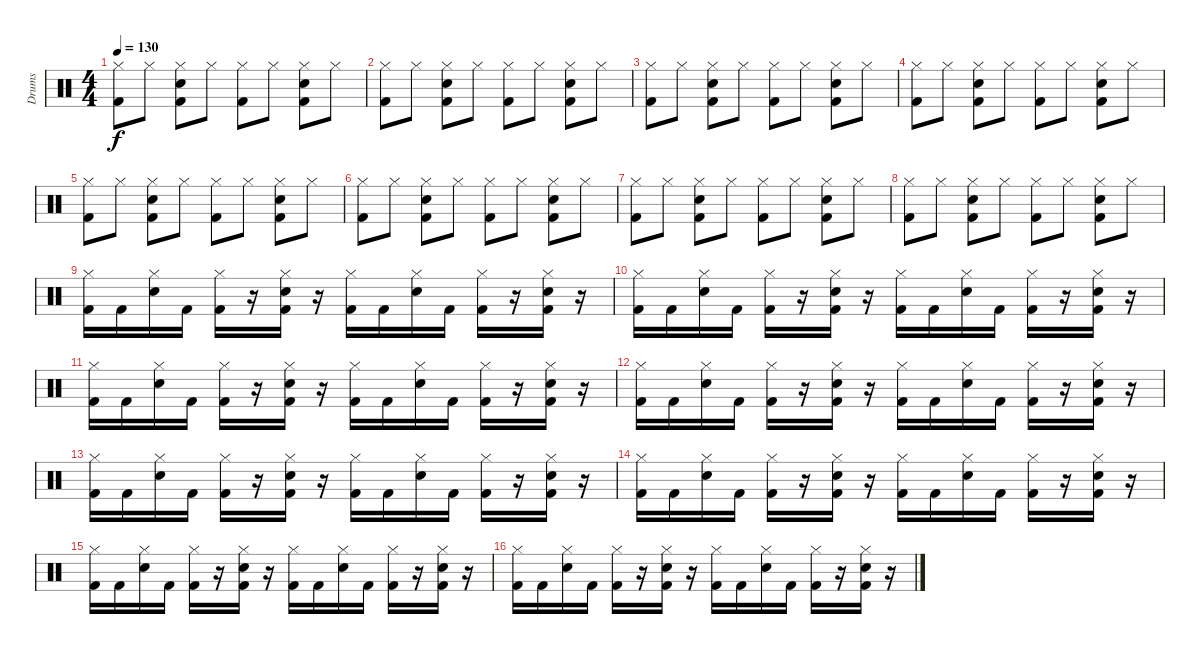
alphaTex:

\track ("Drums" "Drums") {instrument percussion}
\staff {score}
\articulation defaults
\ts (4 4)
\tempo 130
\clef neutral
\ks c
("Hi-Hat (closed)" "Kick (hit) 2").8{dy f} "Hi-Hat (closed)".8 ("Hi-Hat (closed)" "Electric Snare (hit)" "Kick (hit) 2").8 "Hi-Hat (closed)".8 ("Hi-Hat (closed)" "Kick (hit) 2").8 "Hi-Hat (closed)".8 ("Hi-Hat (closed)" "Electric Snare (hit)" "Kick (hit) 2").8 "Hi-Hat (closed)".8 |
("Hi-Hat (closed)" "Kick (hit) 2").8 "Hi-Hat (closed)".8 ("Hi-Hat (closed)" "Electric Snare (hit)" "Kick (hit) 2").8 "Hi-Hat (closed)".8 ("Hi-Hat (closed)" "Kick (hit) 2").8 "Hi-Hat (closed)".8 ("Hi-Hat (closed)" "Electric Snare (hit)" "Kick (hit) 2").8 "Hi-Hat (closed)".8 |
("Hi-Hat (closed)" "Kick (hit) 2").8 "Hi-Hat (closed)".8 ("Hi-Hat (closed)" "Electric Snare (hit)" "Kick (hit) 2").8 "Hi-Hat (closed)".8 ("Hi-Hat (closed)" "Kick (hit) 2").8 "Hi-Hat (closed)".8 ("Hi-Hat (closed)" "Electric Snare (hit)" "Kick (hit) 2").8 "Hi-Hat (closed)".8 |
("Hi-Hat (closed)" "Kick (hit) 2").8 "Hi-Hat (closed)".8 ("Hi-Hat (closed)" "Electric Snare (hit)" "Kick (hit) 2").8 "Hi-Hat (closed)".8 ("Hi-Hat (closed)" "Kick (hit) 2").8 "Hi-Hat (closed)".8 ("Hi-Hat (closed)" "Electric Snare (hit)" "Kick (hit) 2").8 "Hi-Hat (closed)".8 |
("Hi-Hat (closed)" "Kick (hit) 2").8 "Hi-Hat (closed)".8 ("Hi-Hat (closed)" "Electric Snare (hit)" "Kick (hit) 2").8 "Hi-Hat (closed)".8 ("Hi-Hat (closed)" "Kick (hit) 2").8 "Hi-Hat (closed)".8 ("Hi-Hat (closed)" "Electric Snare (hit)" "Kick (hit) 2").8 "Hi-Hat (closed)".8 |
("Hi-Hat (closed)" "Kick (hit) 2").8 "Hi-Hat (closed)".8 ("Hi-Hat (closed)" "Electric Snare (hit)" "Kick (hit) 2").8 "Hi-Hat (closed)".8 ("Hi-Hat (closed)" "Kick (hit) 2").8 "Hi-Hat (closed)".8 ("Hi-Hat (closed)" "Electric Snare (hit)" "Kick (hit) 2").8 "Hi-Hat (closed)".8 |
("Hi-Hat (closed)" "Kick (hit) 2").8 "Hi-Hat (closed)".8 ("Hi-Hat (closed)" "Electric Snare (hit)" "Kick (hit) 2").8 "Hi-Hat (closed)".8 ("Hi-Hat (closed)" "Kick (hit) 2").8 "Hi-Hat (closed)".8 ("Hi-Hat (closed)" "Electric Snare (hit)" "Kick (hit) 2").8 "Hi-Hat (closed)".8 |
("Hi-Hat (closed)" "Kick (hit) 2").8 "Hi-Hat (closed)".8 ("Hi-Hat (closed)" "Electric Snare (hit)" "Kick (hit) 2").8 "Hi-Hat (closed)".8 ("Hi-Hat (closed)" "Kick (hit) 2").8 "Hi-Hat (closed)".8 ("Hi-Hat (closed)" "Electric Snare (hit)" "Kick (hit) 2").8 "Hi-Hat (closed)".8 |
("Kick (hit) 2" "Hi-Hat (closed)").16 "Kick (hit) 2".16 ("Hi-Hat (closed)" "Electric Snare (hit)").16 "Kick (hit) 2".16 ("Kick (hit) 2" "Hi-Hat (closed)").16 r.16 ("Kick (hit) 2" "Hi-Hat (closed)" "Electric Snare (hit)").16 r.16 ("Kick (hit) 2" "Hi-Hat (closed)").16 "Kick (hit) 2".16 ("Hi-Hat (closed)" "Electric Snare (hit)").16 "Kick (hit) 2".16 ("Kick (hit) 2" "Hi-Hat (closed)").16 r.16 ("Kick (hit) 2" "Hi-Hat (closed)" "Electric Snare (hit)").16 r.16 |
("Kick (hit) 2" "Hi-Hat (closed)").16 "Kick (hit) 2".16 ("Hi-Hat (closed)" "Electric Snare (hit)").16 "Kick (hit) 2".16 ("Kick (hit) 2" "Hi-Hat (closed)").16 r.16 ("Kick (hit) 2" "Hi-Hat (closed)" "Electric Snare (hit)").16 r.16 ("Kick (hit) 2" "Hi-Hat (closed)").16 "Kick (hit) 2".16 ("Hi-Hat (closed)" "Electric Snare (hit)").16 "Kick (hit) 2".16 ("Kick (hit) 2" "Hi-Hat (closed)").16 r.16 ("Kick (hit) 2" "Hi-Hat (closed)" "Electric Snare (hit)").16 r.16 |
("Kick (hit) 2" "Hi-Hat (closed)").16 "Kick (hit) 2".16 ("Hi-Hat (closed)" "Electric Snare (hit)").16 "Kick (hit) 2".16 ("Kick (hit) 2" "Hi-Hat (closed)").16 r.16 ("Kick (hit) 2" "Hi-Hat (closed)" "Electric Snare (hit)").16 r.16 ("Kick (hit) 2" "Hi-Hat (closed)").16 "Kick (hit) 2".16 ("Hi-Hat (closed)" "Electric Snare (hit)").16 "Kick (hit) 2".16 ("Kick (hit) 2" "Hi-Hat (closed)").16 r.16 ("Kick (hit) 2" "Hi-Hat (closed)" "Electric Snare (hit)").16 r.16 |
("Kick (hit) 2" "Hi-Hat (closed)").16 "Kick (hit) 2".16 ("Hi-Hat (closed)" "Electric Snare (hit)").16 "Kick (hit) 2".16 ("Kick (hit) 2" "Hi-Hat (closed)").16 r.16 ("Kick (hit) 2" "Hi-Hat (closed)" "Electric Snare (hit)").16 r.16 ("Kick (hit) 2" "Hi-Hat (closed)").16 "Kick (hit) 2".16 ("Hi-Hat (closed)" "Electric Snare (hit)").16 "Kick (hit) 2".16 ("Kick (hit) 2" "Hi-Hat (closed)").16 r.16 ("Kick (hit) 2" "Hi-Hat (closed)" "Electric Snare (hit)").16 r.16 |
("Kick (hit) 2" "Hi-Hat (closed)").16 "Kick (hit) 2".16 ("Hi-Hat (closed)" "Electric Snare (hit)").16 "Kick (hit) 2".16 ("Kick (hit) 2" "Hi-Hat (closed)").16 r.16 ("Kick (hit) 2" "Hi-Hat (closed)" "Electric Snare (hit)").16 r.16 ("Kick (hit) 2" "Hi-Hat (closed)").16 "Kick (hit) 2".16 ("Hi-Hat (closed)" "Electric Snare (hit)").16 "Kick (hit) 2".16 ("Kick (hit) 2" "Hi-Hat (closed)").16 r.16 ("Kick (hit) 2" "Hi-Hat (closed)" "Electric Snare (hit)").16 r.16 |
("Kick (hit) 2" "Hi-Hat (closed)").16 "Kick (hit) 2".16 ("Hi-Hat (closed)" "Electric Snare (hit)").16 "Kick (hit) 2".16 ("Kick (hit) 2" "Hi-Hat (closed)").16 r.16 ("Kick (hit) 2" "Hi-Hat (closed)" "Electric Snare (hit)").16 r.16 ("Kick (hit) 2" "Hi-Hat (closed)").16 "Kick (hit) 2".16 ("Hi-Hat (closed)" "Electric Snare (hit)").16 "Kick (hit) 2".16 ("Kick (hit) 2" "Hi-Hat (closed)").16 r.16 ("Kick (hit) 2" "Hi-Hat (closed)" "Electric Snare (hit)").16 r.16 |
("Kick (hit) 2" "Hi-Hat (closed)").16 "Kick (hit) 2".16 ("Hi-Hat (closed)" "Electric Snare (hit)").16 "Kick (hit) 2".16 ("Kick (hit) 2" "Hi-Hat (closed)").16 r.16 ("Kick (hit) 2" "Hi-Hat (closed)" "Electric Snare (hit)").16 r.16 ("Kick (hit) 2" "Hi-Hat (closed)").16 "Kick (hit) 2".16 ("Hi-Hat (closed)" "Electric Snare (hit)").16 "Kick (hit) 2".16 ("Kick (hit) 2" "Hi-Hat (closed)").16 r.16 ("Kick (hit) 2" "Hi-Hat (closed)" "Electric Snare (hit)").16 r.16 |
("Kick (hit) 2" "Hi-Hat (closed)").16 "Kick (hit) 2".16 ("Hi-Hat (closed)" "Electric Snare (hit)").16 "Kick (hit) 2".16 ("Kick (hit) 2" "Hi-Hat (closed)").16 r.16 ("Kick (hit) 2" "Hi-Hat (closed)" "Electric Snare (hit)").16 r.16 ("Kick (hit) 2" "Hi-Hat (closed)").16 "Kick (hit) 2".16 ("Hi-Hat (closed)" "Electric Snare (hit)").16 "Kick (hit) 2".16 ("Kick (hit) 2" "Hi-Hat (closed)").16 r.16 ("Kick (hit) 2" "Hi-Hat (closed)" "Electric Snare (hit)").16 r.16
